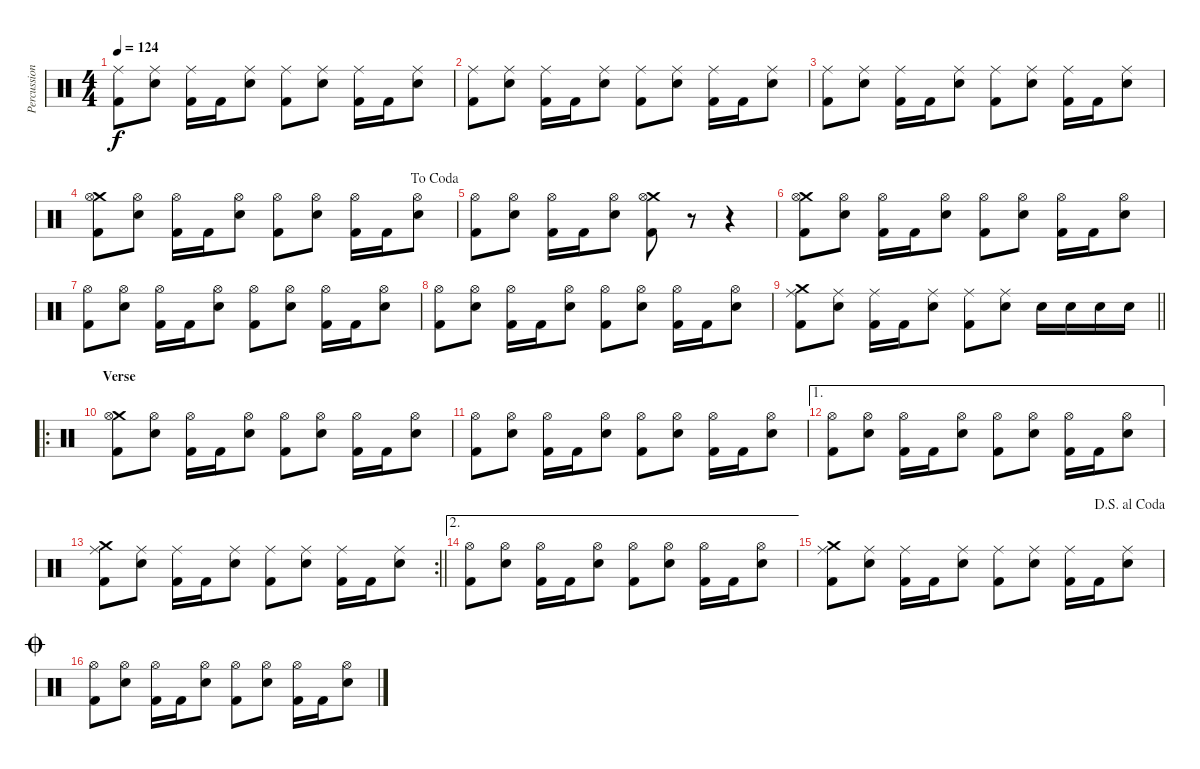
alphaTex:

\track ("Percussion" "Percussion") {instrument percussion}
\staff {score}
\articulation defaults
\ts (4 4)
\tempo 124
\clef neutral
\ks c
("Ride (middle)" "Kick (hit) 2").8{dy f} ("Ride (middle)" "Electric Snare (hit)").8 ("Ride (middle)" "Kick (hit) 2").16 "Kick (hit) 2".16 ("Ride (middle)" "Electric Snare (hit)").8 ("Ride (middle)" "Kick (hit) 2").8 ("Ride (middle)" "Electric Snare (hit)").8 ("Ride (middle)" "Kick (hit) 2").16 "Kick (hit) 2".16 ("Ride (middle)" "Electric Snare (hit)").8 |
("Ride (middle)" "Kick (hit) 2").8 ("Ride (middle)" "Electric Snare (hit)").8 ("Ride (middle)" "Kick (hit) 2").16 "Kick (hit) 2".16 ("Ride (middle)" "Electric Snare (hit)").8 ("Ride (middle)" "Kick (hit) 2").8 ("Ride (middle)" "Electric Snare (hit)").8 ("Ride (middle)" "Kick (hit) 2").16 "Kick (hit) 2".16 ("Ride (middle)" "Electric Snare (hit)").8 |
("Ride (middle)" "Kick (hit) 2").8 ("Ride (middle)" "Electric Snare (hit)").8 ("Ride (middle)" "Kick (hit) 2").16 "Kick (hit) 2".16 ("Ride (middle)" "Electric Snare (hit)").8 ("Ride (middle)" "Kick (hit) 2").8 ("Ride (middle)" "Electric Snare (hit)").8 ("Ride (middle)" "Kick (hit) 2").16 "Kick (hit) 2".16 ("Ride (middle)" "Electric Snare (hit)").8 |
\jump dacoda
("Crash medium (hit)" "Hi-Hat (open)" "Kick (hit) 2").8 ("Hi-Hat (open)" "Electric Snare (hit)").8 ("Hi-Hat (open)" "Kick (hit) 2").16 "Kick (hit) 2".16 ("Hi-Hat (open)" "Electric Snare (hit)").8 ("Hi-Hat (open)" "Kick (hit) 2").8 ("Hi-Hat (open)" "Electric Snare (hit)").8 ("Hi-Hat (open)" "Kick (hit) 2").16 "Kick (hit) 2".16 ("Hi-Hat (open)" "Electric Snare (hit)").8 |
("Hi-Hat (open)" "Kick (hit) 2").8 ("Hi-Hat (open)" "Electric Snare (hit)").8 ("Hi-Hat (open)" "Kick (hit) 2").16 "Kick (hit) 2".16 ("Hi-Hat (open)" "Electric Snare (hit)").8 ("Crash medium (hit)" "Hi-Hat (open)" "Kick (hit) 2").8 r.8 r.4 |
("Crash medium (hit)" "Hi-Hat (open)" "Kick (hit) 2").8 ("Hi-Hat (open)" "Electric Snare (hit)").8 ("Hi-Hat (open)" "Kick (hit) 2").16 "Kick (hit) 2".16 ("Hi-Hat (open)" "Electric Snare (hit)").8 ("Hi-Hat (open)" "Kick (hit) 2").8 ("Hi-Hat (open)" "Electric Snare (hit)").8 ("Hi-Hat (open)" "Kick (hit) 2").16 "Kick (hit) 2".16 ("Hi-Hat (open)" "Electric Snare (hit)").8 |
("Hi-Hat (open)" "Kick (hit) 2").8 ("Hi-Hat (open)" "Electric Snare (hit)").8 ("Hi-Hat (open)" "Kick (hit) 2").16 "Kick (hit) 2".16 ("Hi-Hat (open)" "Electric Snare (hit)").8 ("Hi-Hat (open)" "Kick (hit) 2").8 ("Hi-Hat (open)" "Electric Snare (hit)").8 ("Hi-Hat (open)" "Kick (hit) 2").16 "Kick (hit) 2".16 ("Hi-Hat (open)" "Electric Snare (hit)").8 |
("Hi-Hat (open)" "Kick (hit) 2").8 ("Hi-Hat (open)" "Electric Snare (hit)").8 ("Hi-Hat (open)" "Kick (hit) 2").16 "Kick (hit) 2".16 ("Hi-Hat (open)" "Electric Snare (hit)").8 ("Hi-Hat (open)" "Kick (hit) 2").8 ("Hi-Hat (open)" "Electric Snare (hit)").8 ("Hi-Hat (open)" "Kick (hit) 2").16 "Kick (hit) 2".16 ("Hi-Hat (open)" "Electric Snare (hit)").8 |
\barLineRight lightlight
("Crash medium (hit)" "Ride (middle)" "Kick (hit) 2").8 ("Ride (middle)" "Electric Snare (hit)").8 ("Ride (middle)" "Kick (hit) 2").16 "Kick (hit) 2".16 ("Ride (middle)" "Electric Snare (hit)").8 ("Ride (middle)" "Kick (hit) 2").8 ("Ride (middle)" "Electric Snare (hit)").8 "Electric Snare (hit)".16 "Electric Snare (hit)".16 "Electric Snare (hit)".16 "Electric Snare (hit)".16 |
\ro
\section ("" "Verse")
("Crash medium (hit)" "Hi-Hat (open)" "Kick (hit) 2").8 ("Hi-Hat (open)" "Electric Snare (hit)").8 ("Hi-Hat (open)" "Kick (hit) 2").16 "Kick (hit) 2".16 ("Hi-Hat (open)" "Electric Snare (hit)").8 ("Hi-Hat (open)" "Kick (hit) 2").8 ("Hi-Hat (open)" "Electric Snare (hit)").8 ("Hi-Hat (open)" "Kick (hit) 2").16 "Kick (hit) 2".16 ("Hi-Hat (open)" "Electric Snare (hit)").8 |
("Hi-Hat (open)" "Kick (hit) 2").8 ("Hi-Hat (open)" "Electric Snare (hit)").8 ("Hi-Hat (open)" "Kick (hit) 2").16 "Kick (hit) 2".16 ("Hi-Hat (open)" "Electric Snare (hit)").8 ("Hi-Hat (open)" "Kick (hit) 2").8 ("Hi-Hat (open)" "Electric Snare (hit)").8 ("Hi-Hat (open)" "Kick (hit) 2").16 "Kick (hit) 2".16 ("Hi-Hat (open)" "Electric Snare (hit)").8 |
\ae 1
("Hi-Hat (open)" "Kick (hit) 2").8 ("Hi-Hat (open)" "Electric Snare (hit)").8 ("Hi-Hat (open)" "Kick (hit) 2").16 "Kick (hit) 2".16 ("Hi-Hat (open)" "Electric Snare (hit)").8 ("Hi-Hat (open)" "Kick (hit) 2").8 ("Hi-Hat (open)" "Electric Snare (hit)").8 ("Hi-Hat (open)" "Kick (hit) 2").16 "Kick (hit) 2".16 ("Hi-Hat (open)" "Electric Snare (hit)").8 |
\rc 2
\barLineRight lightlight
("Crash medium (hit)" "Ride (middle)" "Kick (hit) 2").8 ("Ride (middle)" "Electric Snare (hit)").8 ("Ride (middle)" "Kick (hit) 2").16 "Kick (hit) 2".16 ("Ride (middle)" "Electric Snare (hit)").8 ("Ride (middle)" "Kick (hit) 2").8 ("Ride (middle)" "Electric Snare (hit)").8 ("Ride (middle)" "Kick (hit) 2").16 "Kick (hit) 2".16 ("Ride (middle)" "Electric Snare (hit)").8 |
\ae 2
("Hi-Hat (open)" "Kick (hit) 2").8 ("Hi-Hat (open)" "Electric Snare (hit)").8 ("Hi-Hat (open)" "Kick (hit) 2").16 "Kick (hit) 2".16 ("Hi-Hat (open)" "Electric Snare (hit)").8 ("Hi-Hat (open)" "Kick (hit) 2").8 ("Hi-Hat (open)" "Electric Snare (hit)").8 ("Hi-Hat (open)" "Kick (hit) 2").16 "Kick (hit) 2".16 ("Hi-Hat (open)" "Electric Snare (hit)").8 |
\jump dalsegnoalcoda
("Crash medium (hit)" "Ride (middle)" "Kick (hit) 2").8 ("Ride (middle)" "Electric Snare (hit)").8 ("Ride (middle)" "Kick (hit) 2").16 "Kick (hit) 2".16 ("Ride (middle)" "Electric Snare (hit)").8 ("Ride (middle)" "Kick (hit) 2").8 ("Ride (middle)" "Electric Snare (hit)").8 ("Ride (middle)" "Kick (hit) 2").16 "Kick (hit) 2".16 ("Ride (middle)" "Electric Snare (hit)").8 |
\jump coda
("Hi-Hat (open)" "Kick (hit) 2").8 ("Hi-Hat (open)" "Electric Snare (hit)").8 ("Hi-Hat (open)" "Kick (hit) 2").16 "Kick (hit) 2".16 ("Hi-Hat (open)" "Electric Snare (hit)").8 ("Hi-Hat (open)" "Kick (hit) 2").8 ("Hi-Hat (open)" "Electric Snare (hit)").8 ("Hi-Hat (open)" "Kick (hit) 2").16 "Kick (hit) 2".16 ("Hi-Hat (open)" "Electric Snare (hit)").8
